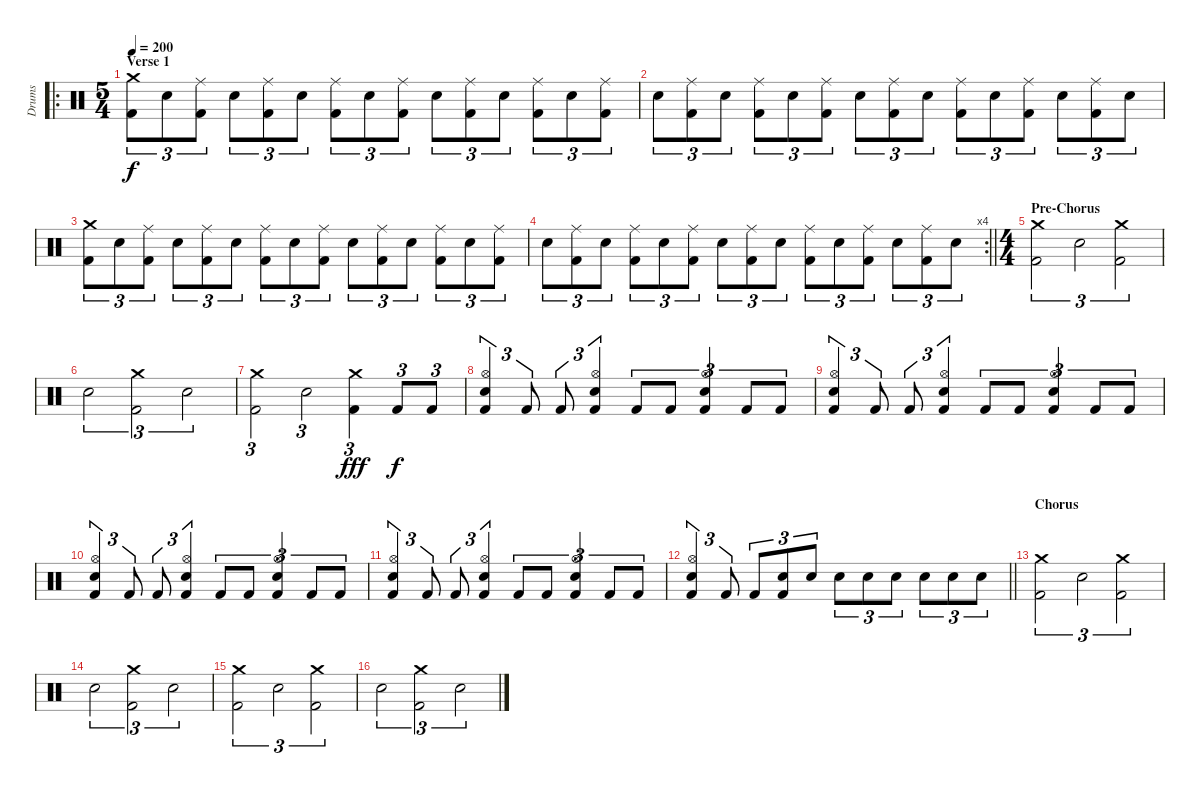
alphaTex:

\track ("Drums" "Drums") {instrument percussion}
\staff {score}
\articulation defaults
\ro
\ts (5 4)
\section ("" "Verse 1")
\tempo 200
\clef neutral
\ks c
("Crash medium (hit)" "Kick (hit) 2").8{tu (3 2) dy f} "Electric Snare (hit)".8{tu (3 2)} ("Ride (middle)" "Kick (hit) 2").8{tu (3 2)} "Electric Snare (hit)".8{tu (3 2)} ("Ride (middle)" "Kick (hit) 2").8{tu (3 2)} "Electric Snare (hit)".8{tu (3 2)} ("Ride (middle)" "Kick (hit) 2").8{tu (3 2)} "Electric Snare (hit)".8{tu (3 2)} ("Ride (middle)" "Kick (hit) 2").8{tu (3 2)} "Electric Snare (hit)".8{tu (3 2)} ("Ride (middle)" "Kick (hit) 2").8{tu (3 2)} "Electric Snare (hit)".8{tu (3 2)} ("Ride (middle)" "Kick (hit) 2").8{tu (3 2)} "Electric Snare (hit)".8{tu (3 2)} ("Ride (middle)" "Kick (hit) 2").8{tu (3 2)} |
"Electric Snare (hit)".8{tu (3 2)} ("Ride (middle)" "Kick (hit) 2").8{tu (3 2)} "Electric Snare (hit)".8{tu (3 2)} ("Ride (middle)" "Kick (hit) 2").8{tu (3 2)} "Electric Snare (hit)".8{tu (3 2)} ("Ride (middle)" "Kick (hit) 2").8{tu (3 2)} "Electric Snare (hit)".8{tu (3 2)} ("Ride (middle)" "Kick (hit) 2").8{tu (3 2)} "Electric Snare (hit)".8{tu (3 2)} ("Ride (middle)" "Kick (hit) 2").8{tu (3 2)} "Electric Snare (hit)".8{tu (3 2)} ("Ride (middle)" "Kick (hit) 2").8{tu (3 2)} "Electric Snare (hit)".8{tu (3 2)} ("Ride (middle)" "Kick (hit) 2").8{tu (3 2)} "Electric Snare (hit)".8{tu (3 2)} |
("Crash medium (hit)" "Kick (hit) 2").8{tu (3 2)} "Electric Snare (hit)".8{tu (3 2)} ("Ride (middle)" "Kick (hit) 2").8{tu (3 2)} "Electric Snare (hit)".8{tu (3 2)} ("Ride (middle)" "Kick (hit) 2").8{tu (3 2)} "Electric Snare (hit)".8{tu (3 2)} ("Ride (middle)" "Kick (hit) 2").8{tu (3 2)} "Electric Snare (hit)".8{tu (3 2)} ("Ride (middle)" "Kick (hit) 2").8{tu (3 2)} "Electric Snare (hit)".8{tu (3 2)} ("Ride (middle)" "Kick (hit) 2").8{tu (3 2)} "Electric Snare (hit)".8{tu (3 2)} ("Ride (middle)" "Kick (hit) 2").8{tu (3 2)} "Electric Snare (hit)".8{tu (3 2)} ("Ride (middle)" "Kick (hit) 2").8{tu (3 2)} |
\rc 4
\barLineRight lightlight "Electric Snare (hit)".8{tu (3 2)}
("Ride (middle)" "Kick (hit) 2").8{tu (3 2)} "Electric Snare (hit)".8{tu (3 2)} ("Ride (middle)" "Kick (hit) 2").8{tu (3 2)} "Electric Snare (hit)".8{tu (3 2)} ("Ride (middle)" "Kick (hit) 2").8{tu (3 2)} "Electric Snare (hit)".8{tu (3 2)} ("Ride (middle)" "Kick (hit) 2").8{tu (3 2)} "Electric Snare (hit)".8{tu (3 2)} ("Ride (middle)" "Kick (hit) 2").8{tu (3 2)} "Electric Snare (hit)".8{tu (3 2)} ("Ride (middle)" "Kick (hit) 2").8{tu (3 2)} "Electric Snare (hit)".8{tu (3 2)} ("Ride (middle)" "Kick (hit) 2").8{tu (3 2)} "Electric Snare (hit)".8{tu (3 2)} |
\ts (4 4)
\section ("" "Pre-Chorus")
("Crash medium (hit)" "Kick (hit) 2").2{tu (3 2)} "Electric Snare (hit)".2{tu (3 2)} ("Crash medium (hit)" "Kick (hit) 2").2{tu (3 2)} |
"Electric Snare (hit)".2{tu (3 2)} ("Crash medium (hit)" "Kick (hit) 2").2{tu (3 2)} "Electric Snare (hit)".2{tu (3 2)} |
("Crash medium (hit)" "Kick (hit) 2").2{tu (3 2)} "Electric Snare (hit)".2{tu (3 2)} ("Crash medium (hit)" "Kick (hit) 2").4{tu (3 2) dy fff} "Kick (hit) 2".8{tu (3 2) dy f} "Kick (hit) 2".8{tu (3 2)} |
("Hi-Hat (open)" "Snare (hit) 2" "Kick (hit) 2").4{tu (3 2)} "Kick (hit) 2".8{tu (3 2)} "Kick (hit) 2".8{tu (3 2)} ("Hi-Hat (open)" "Snare (hit) 2" "Kick (hit) 2").4{tu (3 2)} "Kick (hit) 2".8{tu (3 2)} "Kick (hit) 2".8{tu (3 2)} ("Hi-Hat (open)" "Snare (hit) 2" "Kick (hit) 2").4{tu (3 2)} "Kick (hit) 2".8{tu (3 2)} "Kick (hit) 2".8{tu (3 2)} |
("Hi-Hat (open)" "Snare (hit) 2" "Kick (hit) 2").4{tu (3 2)} "Kick (hit) 2".8{tu (3 2)} "Kick (hit) 2".8{tu (3 2)} ("Hi-Hat (open)" "Snare (hit) 2" "Kick (hit) 2").4{tu (3 2)} "Kick (hit) 2".8{tu (3 2)} "Kick (hit) 2".8{tu (3 2)} ("Hi-Hat (open)" "Snare (hit) 2" "Kick (hit) 2").4{tu (3 2)} "Kick (hit) 2".8{tu (3 2)} "Kick (hit) 2".8{tu (3 2)} |
("Hi-Hat (open)" "Snare (hit) 2" "Kick (hit) 2").4{tu (3 2)} "Kick (hit) 2".8{tu (3 2)} "Kick (hit) 2".8{tu (3 2)} ("Hi-Hat (open)" "Snare (hit) 2" "Kick (hit) 2").4{tu (3 2)} "Kick (hit) 2".8{tu (3 2)} "Kick (hit) 2".8{tu (3 2)} ("Hi-Hat (open)" "Snare (hit) 2" "Kick (hit) 2").4{tu (3 2)} "Kick (hit) 2".8{tu (3 2)} "Kick (hit) 2".8{tu (3 2)} |
("Hi-Hat (open)" "Snare (hit) 2" "Kick (hit) 2").4{tu (3 2)} "Kick (hit) 2".8{tu (3 2)} "Kick (hit) 2".8{tu (3 2)} ("Hi-Hat (open)" "Snare (hit) 2" "Kick (hit) 2").4{tu (3 2)} "Kick (hit) 2".8{tu (3 2)} "Kick (hit) 2".8{tu (3 2)} ("Hi-Hat (open)" "Snare (hit) 2" "Kick (hit) 2").4{tu (3 2)} "Kick (hit) 2".8{tu (3 2)} "Kick (hit) 2".8{tu (3 2)} |
\barLineRight lightlight
("Hi-Hat (open)" "Snare (hit) 2" "Kick (hit) 2").4{tu (3 2)} "Kick (hit) 2".8{tu (3 2)} "Kick (hit) 2".8{tu (3 2)} ("Snare (hit) 2" "Kick (hit) 2").8{tu (3 2)} "Snare (hit) 2".8{tu (3 2)} "Snare (hit) 2".8{tu (3 2)} "Snare (hit) 2".8{tu (3 2)} "Snare (hit) 2".8{tu (3 2)} "Snare (hit) 2".8{tu (3 2)} "Snare (hit) 2".8{tu (3 2)} "Snare (hit) 2".8{tu (3 2)} |
\section ("" "Chorus")
("Crash medium (hit)" "Kick (hit) 2").2{tu (3 2)} "Electric Snare (hit)".2{tu (3 2)} ("Crash medium (hit)" "Kick (hit) 2").2{tu (3 2)} |
"Electric Snare (hit)".2{tu (3 2)} ("Crash medium (hit)" "Kick (hit) 2").2{tu (3 2)} "Electric Snare (hit)".2{tu (3 2)} |
("Crash medium (hit)" "Kick (hit) 2").2{tu (3 2)} "Electric Snare (hit)".2{tu (3 2)} ("Crash medium (hit)" "Kick (hit) 2").2{tu (3 2)} |
"Electric Snare (hit)".2{tu (3 2)} ("Crash medium (hit)" "Kick (hit) 2").2{tu (3 2)} "Electric Snare (hit)".2{tu (3 2)}
